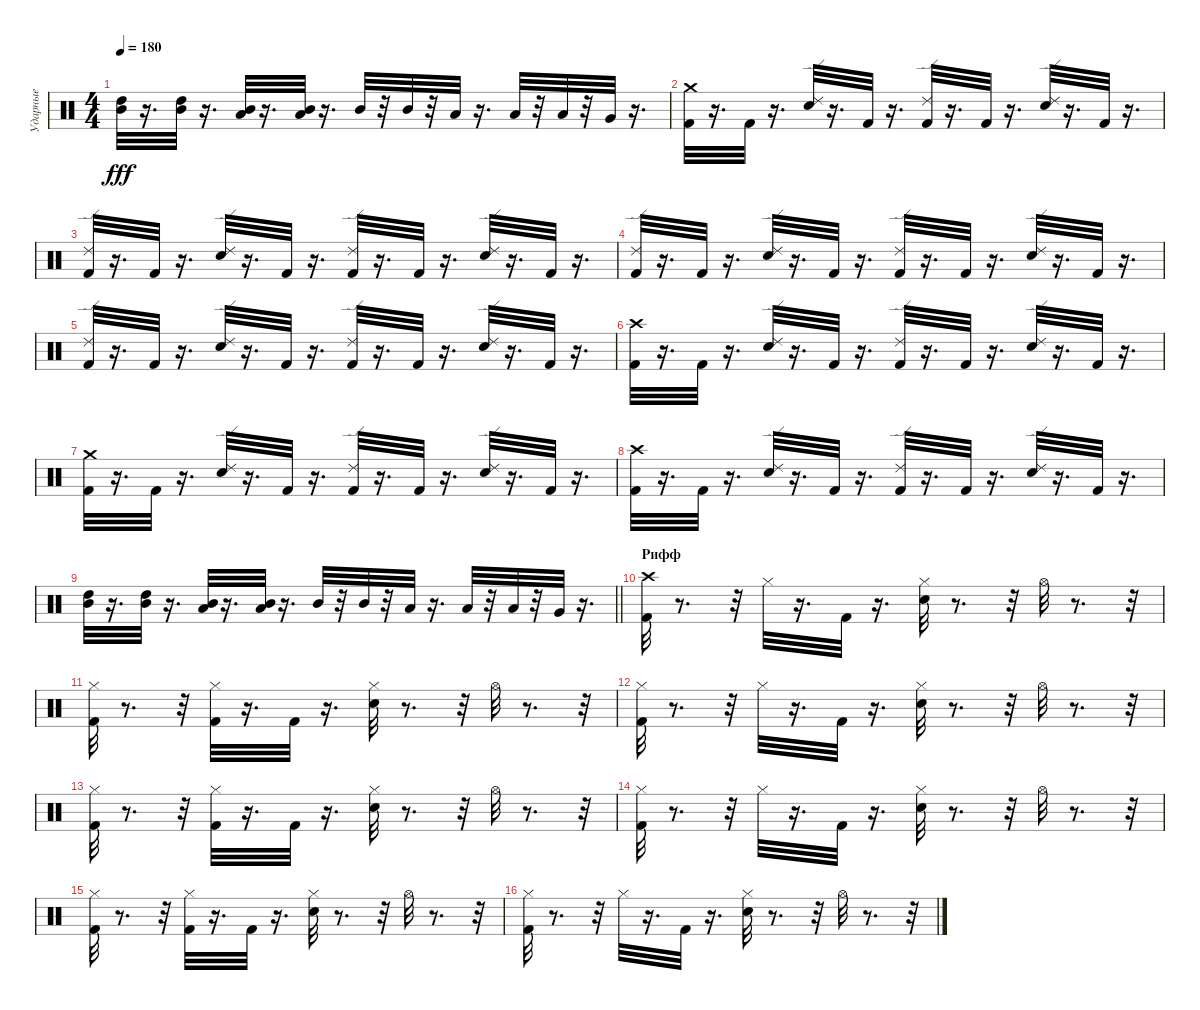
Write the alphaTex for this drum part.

\track ("Ударные" "Ударные") {instrument percussion}
\staff {score}
\articulation defaults
\ts (4 4)
\tempo 180
\clef neutral
\ks c
("Mid Tom (hit)" "High Tom (hit)").32{dy fff} r.16{d} ("Mid Tom (hit)" "High Tom (hit)").32 r.16{d} ("Low Tom (hit)" "Mid Tom (hit)").32 r.16{d} ("Mid Tom (hit)" "Low Tom (hit)").32 r.16{d} "Mid Tom (hit)".32 r.32 "Mid Tom (hit)".32 r.32 "Low Tom (hit)".32 r.16{d} "Low Tom (hit)".32 r.32 "Low Tom (hit)".32 r.32 "Very Low Tom (hit)".32 r.16{d} |
("Crash medium (hit)" "Kick (hit) 2").32 r.16{d} "Kick (hit) 2".32 r.16{d} ("Snare (hit) 2" "Ride (edge) 2").32 r.16{d} "Kick (hit) 2".32 r.16{d} ("Ride (edge) 2" "Kick (hit) 2").32 r.16{d} "Kick (hit) 2".32 r.16{d} ("Snare (hit) 2" "Ride (edge) 2").32 r.16{d} "Kick (hit) 2".32 r.16{d} |
("Ride (edge) 2" "Kick (hit) 2").32 r.16{d} "Kick (hit) 2".32 r.16{d} ("Ride (edge) 2" "Snare (hit) 2").32 r.16{d} "Kick (hit) 2".32 r.16{d} ("Ride (edge) 2" "Kick (hit) 2").32 r.16{d} "Kick (hit) 2".32 r.16{d} ("Ride (edge) 2" "Snare (hit) 2").32 r.16{d} "Kick (hit) 2".32 r.16{d} |
("Kick (hit) 2" "Ride (edge) 2").32 r.16{d} "Kick (hit) 2".32 r.16{d} ("Ride (edge) 2" "Snare (hit) 2").32 r.16{d} "Kick (hit) 2".32 r.16{d} ("Kick (hit) 2" "Ride (edge) 2").32 r.16{d} "Kick (hit) 2".32 r.16{d} ("Snare (hit) 2" "Ride (edge) 2").32 r.16{d} "Kick (hit) 2".32 r.16{d} |
("Ride (edge) 2" "Kick (hit) 2").32 r.16{d} "Kick (hit) 2".32 r.16{d} ("Ride (edge) 2" "Snare (hit) 2").32 r.16{d} "Kick (hit) 2".32 r.16{d} ("Kick (hit) 2" "Ride (edge) 2").32 r.16{d} "Kick (hit) 2".32 r.16{d} ("Snare (hit) 2" "Ride (edge) 2").32 r.16{d} "Kick (hit) 2".32 r.16{d} |
("Kick (hit) 2" "Crash high (hit)").32 r.16{d} "Kick (hit) 2".32 r.16{d} ("Ride (edge) 2" "Snare (hit) 2").32 r.16{d} "Kick (hit) 2".32 r.16{d} ("Kick (hit) 2" "Ride (edge) 2").32 r.16{d} "Kick (hit) 2".32 r.16{d} ("Ride (edge) 2" "Snare (hit) 2").32 r.16{d} "Kick (hit) 2".32 r.16{d} |
("Crash medium (hit)" "Kick (hit) 2").32 r.16{d} "Kick (hit) 2".32 r.16{d} ("Snare (hit) 2" "Ride (edge) 2").32 r.16{d} "Kick (hit) 2".32 r.16{d} ("Kick (hit) 2" "Ride (edge) 2").32 r.16{d} "Kick (hit) 2".32 r.16{d} ("Snare (hit) 2" "Ride (edge) 2").32 r.16{d} "Kick (hit) 2".32 r.16{d} |
("Crash high (hit)" "Kick (hit) 2").32 r.16{d} "Kick (hit) 2".32 r.16{d} ("Snare (hit) 2" "Ride (edge) 2").32 r.16{d} "Kick (hit) 2".32 r.16{d} ("Kick (hit) 2" "Ride (edge) 2").32 r.16{d} "Kick (hit) 2".32 r.16{d} ("Snare (hit) 2" "Ride (edge) 2").32 r.16{d} "Kick (hit) 2".32 r.16{d} |
\barLineRight lightlight
("High Tom (hit)" "Mid Tom (hit)").32 r.16{d} ("High Tom (hit)" "Mid Tom (hit)").32 r.16{d} ("Low Tom (hit)" "Mid Tom (hit)").32 r.16{d} ("Mid Tom (hit)" "Low Tom (hit)").32 r.16{d} "Mid Tom (hit)".32 r.32 "Mid Tom (hit)".32 r.32 "Low Tom (hit)".32 r.16{d} "Low Tom (hit)".32 r.32 "Low Tom (hit)".32 r.32 "Very Low Tom (hit)".32 r.16{d} |
\section ("" "Рифф")
("Crash high (hit)" "Kick (hit) 2").32 r.8{d} r.32 "Hi-Hat (closed)".32 r.16{d} "Kick (hit) 2".32 r.16{d} ("Snare (hit) 2" "Hi-Hat (closed)").32 r.8{d} r.32 "Hi-Hat (open)".32 r.8{d} r.32 |
("Hi-Hat (closed)" "Kick (hit) 2").32 r.8{d} r.32 ("Hi-Hat (closed)" "Kick (hit) 2").32 r.16{d} "Kick (hit) 2".32 r.16{d} ("Snare (hit) 2" "Hi-Hat (closed)").32 r.8{d} r.32 "Hi-Hat (open)".32 r.8{d} r.32 |
("Kick (hit) 2" "Hi-Hat (closed)").32 r.8{d} r.32 "Hi-Hat (closed)".32 r.16{d} "Kick (hit) 2".32 r.16{d} ("Snare (hit) 2" "Hi-Hat (closed)").32 r.8{d} r.32 "Hi-Hat (open)".32 r.8{d} r.32 |
("Kick (hit) 2" "Hi-Hat (closed)").32 r.8{d} r.32 ("Hi-Hat (closed)" "Kick (hit) 2").32 r.16{d} "Kick (hit) 2".32 r.16{d} ("Snare (hit) 2" "Hi-Hat (closed)").32 r.8{d} r.32 "Hi-Hat (open)".32 r.8{d} r.32 |
("Hi-Hat (closed)" "Kick (hit) 2").32 r.8{d} r.32 "Hi-Hat (closed)".32 r.16{d} "Kick (hit) 2".32 r.16{d} ("Hi-Hat (closed)" "Snare (hit) 2").32 r.8{d} r.32 "Hi-Hat (open)".32 r.8{d} r.32 |
("Kick (hit) 2" "Hi-Hat (closed)").32 r.8{d} r.32 ("Kick (hit) 2" "Hi-Hat (closed)").32 r.16{d} "Kick (hit) 2".32 r.16{d} ("Hi-Hat (closed)" "Snare (hit) 2").32 r.8{d} r.32 "Hi-Hat (open)".32 r.8{d} r.32 |
("Hi-Hat (closed)" "Kick (hit) 2").32 r.8{d} r.32 "Hi-Hat (closed)".32 r.16{d} "Kick (hit) 2".32 r.16{d} ("Snare (hit) 2" "Hi-Hat (closed)").32 r.8{d} r.32 "Hi-Hat (open)".32 r.8{d} r.32
